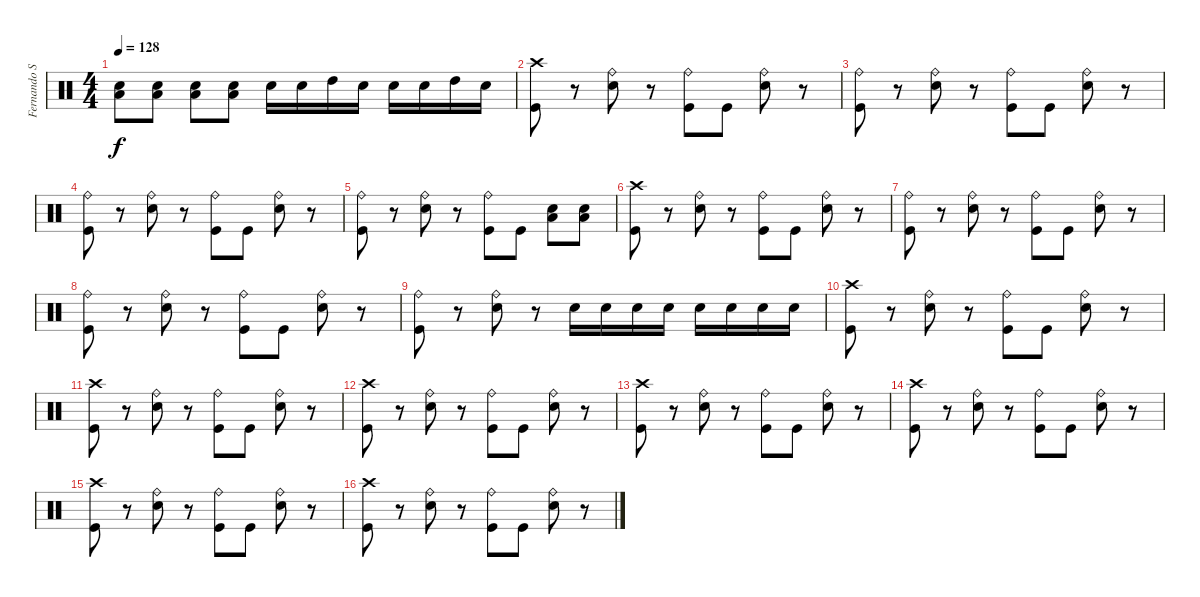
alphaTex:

\track ("Fernando Scarcella" "Fernando S") {instrument percussion}
\staff {score}
\articulation defaults
\ts (4 4)
\tempo 128
\clef neutral
\ks c
("Low Floor Tom (hit)" "Snare (hit) 2").8{dy f} ("Low Floor Tom (hit)" "Snare (hit) 2").8 ("Low Floor Tom (hit)" "Snare (hit) 2").8 ("Low Floor Tom (hit)" "Snare (hit) 2").8 "Snare (hit) 2".16 "Snare (hit) 2".16 "High Tom (hit)".16 "Snare (hit) 2".16 "Snare (hit) 2".16 "Snare (hit) 2".16 "High Tom (hit)".16 "Snare (hit) 2".16 |
("Kick (hit)" "Crash high (hit)").8 r.8 ("Snare (hit) 2" "Ride (bell)").8 r.8 ("Kick (hit)" "Ride (bell)").8 "Kick (hit)".8 ("Snare (hit) 2" "Ride (bell)").8 r.8 |
("Kick (hit)" "Ride (bell)").8 r.8 ("Snare (hit) 2" "Ride (bell)").8 r.8 ("Kick (hit)" "Ride (bell)").8 "Kick (hit)".8 ("Snare (hit) 2" "Ride (bell)").8 r.8 |
("Kick (hit)" "Ride (bell)").8 r.8 ("Snare (hit) 2" "Ride (bell)").8 r.8 ("Kick (hit)" "Ride (bell)").8 "Kick (hit)".8 ("Snare (hit) 2" "Ride (bell)").8 r.8 |
("Kick (hit)" "Ride (bell)").8 r.8 ("Snare (hit) 2" "Ride (bell)").8 r.8 ("Kick (hit)" "Ride (bell)").8 "Kick (hit)".8 ("Low Floor Tom (hit)" "Snare (hit) 2").8 ("Low Floor Tom (hit)" "Snare (hit) 2").8 |
("Kick (hit)" "Crash high (hit)").8 r.8 ("Snare (hit) 2" "Ride (bell)").8 r.8 ("Kick (hit)" "Ride (bell)").8 "Kick (hit)".8 ("Snare (hit) 2" "Ride (bell)").8 r.8 |
("Kick (hit)" "Ride (bell)").8 r.8 ("Snare (hit) 2" "Ride (bell)").8 r.8 ("Kick (hit)" "Ride (bell)").8 "Kick (hit)".8 ("Snare (hit) 2" "Ride (bell)").8 r.8 |
("Kick (hit)" "Ride (bell)").8 r.8 ("Snare (hit) 2" "Ride (bell)").8 r.8 ("Kick (hit)" "Ride (bell)").8 "Kick (hit)".8 ("Snare (hit) 2" "Ride (bell)").8 r.8 |
("Kick (hit)" "Ride (bell)").8 r.8 ("Snare (hit) 2" "Ride (bell)").8 r.8 "Snare (hit) 2".16 "Snare (hit) 2".16 "Snare (hit) 2".16 "Snare (hit) 2".16 "Snare (hit) 2".16 "Snare (hit) 2".16 "Snare (hit) 2".16 "Snare (hit) 2".16 |
("Kick (hit)" "Crash high (hit)").8{volume 11} r.8 ("Snare (hit) 2" "Ride (bell)").8 r.8 ("Kick (hit)" "Ride (bell)").8 "Kick (hit)".8 ("Snare (hit) 2" "Ride (bell)").8 r.8 |
("Kick (hit)" "Crash high (hit)").8 r.8 ("Snare (hit) 2" "Ride (bell)").8 r.8 ("Kick (hit)" "Ride (bell)").8 "Kick (hit)".8 ("Snare (hit) 2" "Ride (bell)").8 r.8 |
("Kick (hit)" "Crash high (hit)").8{volume 9} r.8 ("Snare (hit) 2" "Ride (bell)").8 r.8 ("Kick (hit)" "Ride (bell)").8 "Kick (hit)".8 ("Ride (bell)" "Snare (hit) 2").8 r.8 |
("Kick (hit)" "Crash high (hit)").8 r.8 ("Snare (hit) 2" "Ride (bell)").8 r.8 ("Kick (hit)" "Ride (bell)").8 "Kick (hit)".8 ("Snare (hit) 2" "Ride (bell)").8 r.8 |
("Kick (hit)" "Crash high (hit)").8{volume 7} r.8 ("Snare (hit) 2" "Ride (bell)").8 r.8 ("Kick (hit)" "Ride (bell)").8 "Kick (hit)".8 ("Snare (hit) 2" "Ride (bell)").8 r.8 |
("Kick (hit)" "Crash high (hit)").8 r.8 ("Snare (hit) 2" "Ride (bell)").8 r.8 ("Kick (hit)" "Ride (bell)").8 "Kick (hit)".8 ("Snare (hit) 2" "Ride (bell)").8 r.8 |
("Kick (hit)" "Crash high (hit)").8{volume 5} r.8 ("Snare (hit) 2" "Ride (bell)").8 r.8 ("Kick (hit)" "Ride (bell)").8 "Kick (hit)".8 ("Snare (hit) 2" "Ride (bell)").8 r.8
